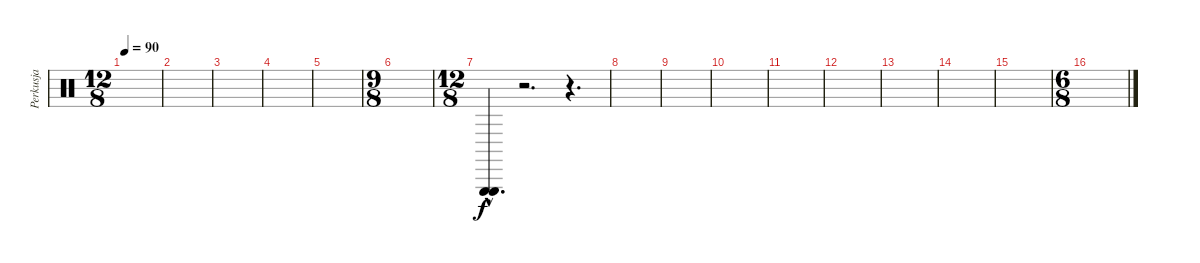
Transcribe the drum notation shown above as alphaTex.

\track ("Perkusja" "Perkusja") {instrument percussion}
\staff {score}
\articulation defaults
\ts (12 8)
\tempo 90
\clef neutral
\ks c
|
|
|
|
|
\ts (9 8)
|
\ts (12 8)
("Triangle (hit)"{hac} "Triangle (hit)"{hac}).4{d} r.2{d} r.4{d} |
|
|
|
|
|
|
|
|
\ts (6 8)
